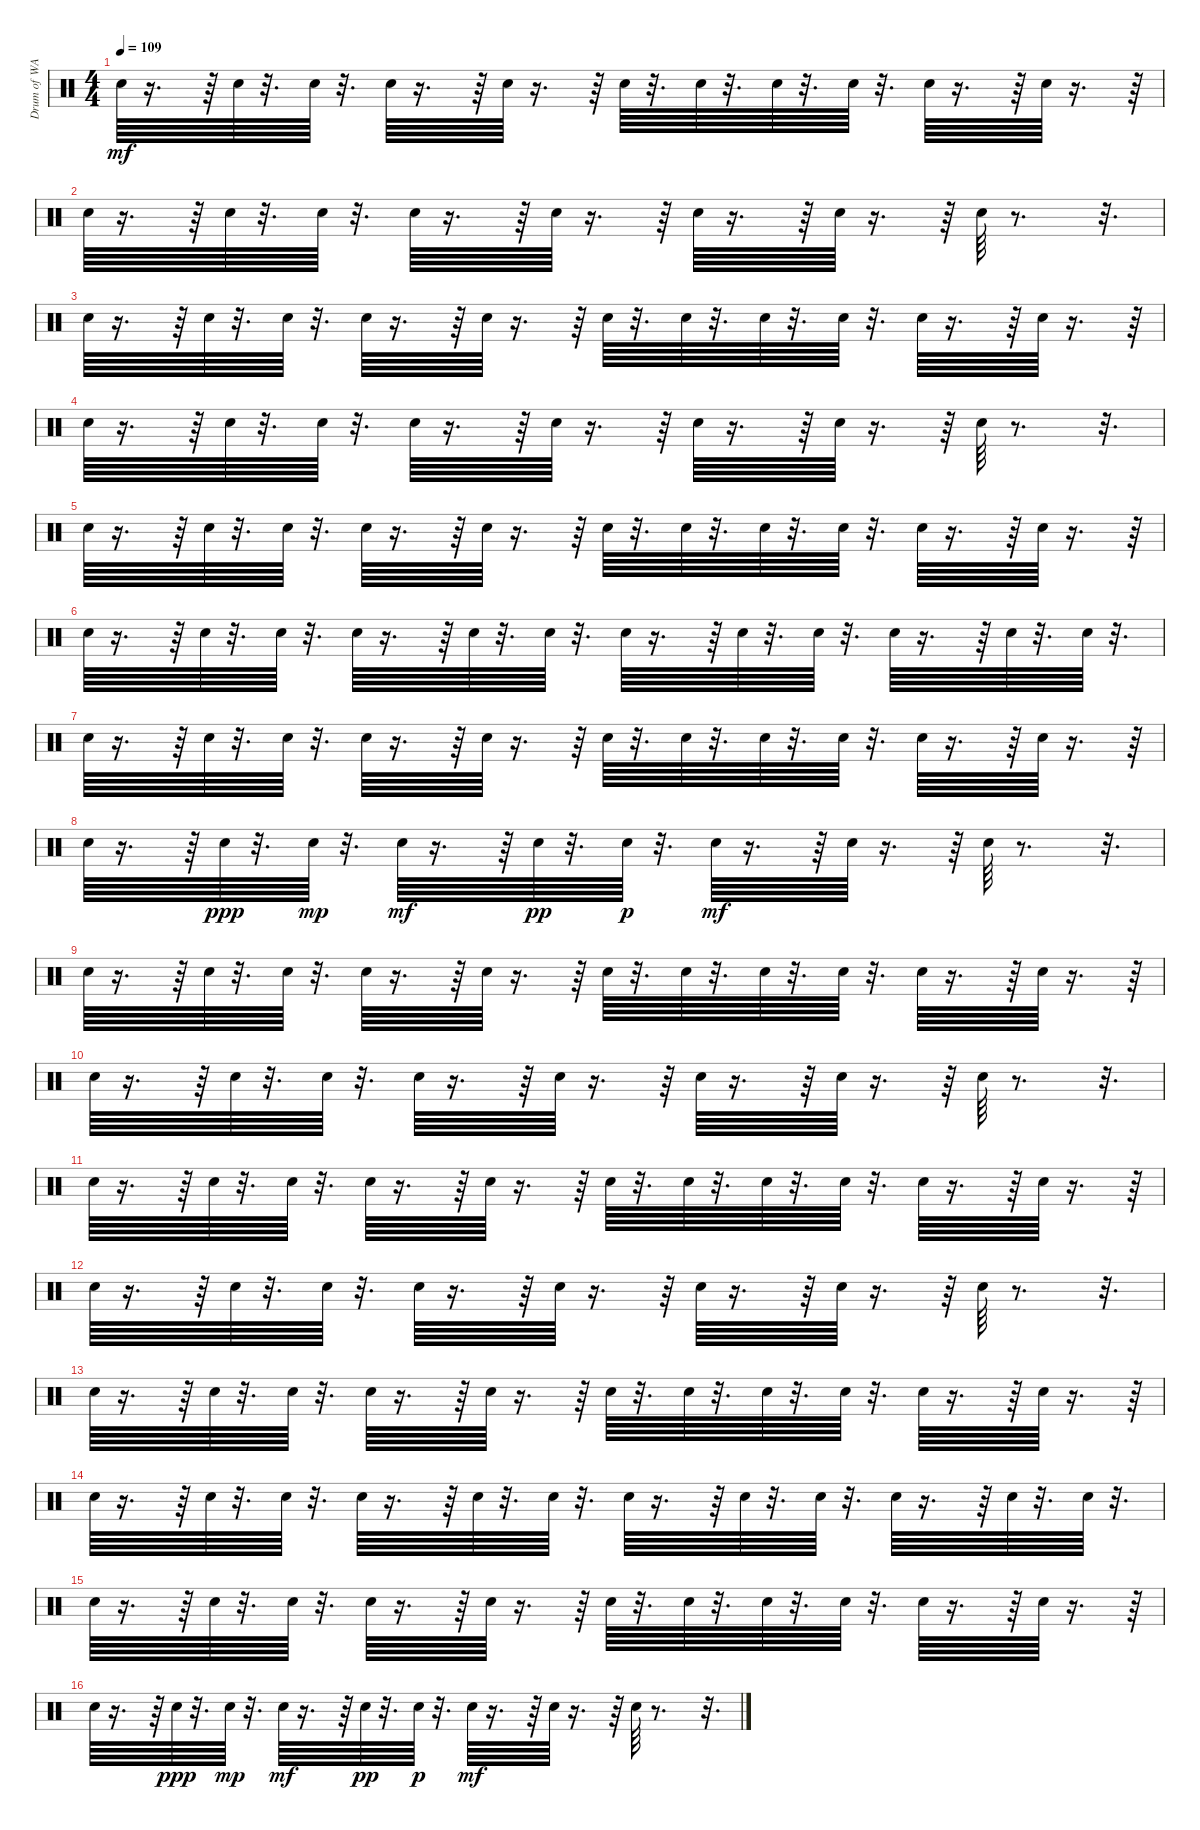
\track ("Drum of WAR" "Drum of WA") {instrument percussion}
\staff {score}
\articulation defaults
\ts (4 4)
\tempo 109
\clef neutral
\ks c "Snare (hit) 2".64{dy mf}
r.16{d} r.64 "Snare (hit) 2".64 r.32{d} "Snare (hit) 2".64 r.32{d} "Snare (hit) 2".64 r.16{d} r.64 "Snare (hit) 2".64 r.16{d} r.64 "Snare (hit) 2".64 r.32{d} "Snare (hit) 2".64 r.32{d} "Snare (hit) 2".64 r.32{d} "Snare (hit) 2".64 r.32{d} "Snare (hit) 2".64 r.16{d} r.64 "Snare (hit) 2".64 r.16{d} r.64 |
"Snare (hit) 2".64 r.16{d} r.64 "Snare (hit) 2".64 r.32{d} "Snare (hit) 2".64 r.32{d} "Snare (hit) 2".64 r.16{d} r.64 "Snare (hit) 2".64 r.16{d} r.64 "Snare (hit) 2".64 r.16{d} r.64 "Snare (hit) 2".64 r.16{d} r.64 "Snare (hit) 2".64 r.8{d} r.32{d} |
"Snare (hit) 2".64 r.16{d} r.64 "Snare (hit) 2".64 r.32{d} "Snare (hit) 2".64 r.32{d} "Snare (hit) 2".64 r.16{d} r.64 "Snare (hit) 2".64 r.16{d} r.64 "Snare (hit) 2".64 r.32{d} "Snare (hit) 2".64 r.32{d} "Snare (hit) 2".64 r.32{d} "Snare (hit) 2".64 r.32{d} "Snare (hit) 2".64 r.16{d} r.64 "Snare (hit) 2".64 r.16{d} r.64 |
"Snare (hit) 2".64 r.16{d} r.64 "Snare (hit) 2".64 r.32{d} "Snare (hit) 2".64 r.32{d} "Snare (hit) 2".64 r.16{d} r.64 "Snare (hit) 2".64 r.16{d} r.64 "Snare (hit) 2".64 r.16{d} r.64 "Snare (hit) 2".64 r.16{d} r.64 "Snare (hit) 2".64 r.8{d} r.32{d} |
"Snare (hit) 2".64 r.16{d} r.64 "Snare (hit) 2".64 r.32{d} "Snare (hit) 2".64 r.32{d} "Snare (hit) 2".64 r.16{d} r.64 "Snare (hit) 2".64 r.16{d} r.64 "Snare (hit) 2".64 r.32{d} "Snare (hit) 2".64 r.32{d} "Snare (hit) 2".64 r.32{d} "Snare (hit) 2".64 r.32{d} "Snare (hit) 2".64 r.16{d} r.64 "Snare (hit) 2".64 r.16{d} r.64 |
"Snare (hit) 2".64 r.16{d} r.64 "Snare (hit) 2".64 r.32{d} "Snare (hit) 2".64 r.32{d} "Snare (hit) 2".64 r.16{d} r.64 "Snare (hit) 2".64 r.32{d} "Snare (hit) 2".64 r.32{d} "Snare (hit) 2".64 r.16{d} r.64 "Snare (hit) 2".64 r.32{d} "Snare (hit) 2".64 r.32{d} "Snare (hit) 2".64 r.16{d} r.64 "Snare (hit) 2".64 r.32{d} "Snare (hit) 2".64 r.32{d} |
"Snare (hit) 2".64 r.16{d} r.64 "Snare (hit) 2".64 r.32{d} "Snare (hit) 2".64 r.32{d} "Snare (hit) 2".64 r.16{d} r.64 "Snare (hit) 2".64 r.16{d} r.64 "Snare (hit) 2".64 r.32{d} "Snare (hit) 2".64 r.32{d} "Snare (hit) 2".64 r.32{d} "Snare (hit) 2".64 r.32{d} "Snare (hit) 2".64 r.16{d} r.64 "Snare (hit) 2".64 r.16{d} r.64 |
"Snare (hit) 2".64 r.16{d} r.64 "Snare (hit) 2".64{dy ppp} r.32{d} "Snare (hit) 2".64{dy mp} r.32{d} "Snare (hit) 2".64{dy mf} r.16{d} r.64 "Snare (hit) 2".64{dy pp} r.32{d} "Snare (hit) 2".64{dy p} r.32{d} "Snare (hit) 2".64{dy mf} r.16{d} r.64 "Snare (hit) 2".64 r.16{d} r.64 "Snare (hit) 2".64 r.8{d} r.32{d} |
"Snare (hit) 2".64 r.16{d} r.64 "Snare (hit) 2".64 r.32{d} "Snare (hit) 2".64 r.32{d} "Snare (hit) 2".64 r.16{d} r.64 "Snare (hit) 2".64 r.16{d} r.64 "Snare (hit) 2".64 r.32{d} "Snare (hit) 2".64 r.32{d} "Snare (hit) 2".64 r.32{d} "Snare (hit) 2".64 r.32{d} "Snare (hit) 2".64 r.16{d} r.64 "Snare (hit) 2".64 r.16{d} r.64 |
"Snare (hit) 2".64 r.16{d} r.64 "Snare (hit) 2".64 r.32{d} "Snare (hit) 2".64 r.32{d} "Snare (hit) 2".64 r.16{d} r.64 "Snare (hit) 2".64 r.16{d} r.64 "Snare (hit) 2".64 r.16{d} r.64 "Snare (hit) 2".64 r.16{d} r.64 "Snare (hit) 2".64 r.8{d} r.32{d} |
"Snare (hit) 2".64 r.16{d} r.64 "Snare (hit) 2".64 r.32{d} "Snare (hit) 2".64 r.32{d} "Snare (hit) 2".64 r.16{d} r.64 "Snare (hit) 2".64 r.16{d} r.64 "Snare (hit) 2".64 r.32{d} "Snare (hit) 2".64 r.32{d} "Snare (hit) 2".64 r.32{d} "Snare (hit) 2".64 r.32{d} "Snare (hit) 2".64 r.16{d} r.64 "Snare (hit) 2".64 r.16{d} r.64 |
"Snare (hit) 2".64 r.16{d} r.64 "Snare (hit) 2".64 r.32{d} "Snare (hit) 2".64 r.32{d} "Snare (hit) 2".64 r.16{d} r.64 "Snare (hit) 2".64 r.16{d} r.64 "Snare (hit) 2".64 r.16{d} r.64 "Snare (hit) 2".64 r.16{d} r.64 "Snare (hit) 2".64 r.8{d} r.32{d} |
"Snare (hit) 2".64 r.16{d} r.64 "Snare (hit) 2".64 r.32{d} "Snare (hit) 2".64 r.32{d} "Snare (hit) 2".64 r.16{d} r.64 "Snare (hit) 2".64 r.16{d} r.64 "Snare (hit) 2".64 r.32{d} "Snare (hit) 2".64 r.32{d} "Snare (hit) 2".64 r.32{d} "Snare (hit) 2".64 r.32{d} "Snare (hit) 2".64 r.16{d} r.64 "Snare (hit) 2".64 r.16{d} r.64 |
"Snare (hit) 2".64 r.16{d} r.64 "Snare (hit) 2".64 r.32{d} "Snare (hit) 2".64 r.32{d} "Snare (hit) 2".64 r.16{d} r.64 "Snare (hit) 2".64 r.32{d} "Snare (hit) 2".64 r.32{d} "Snare (hit) 2".64 r.16{d} r.64 "Snare (hit) 2".64 r.32{d} "Snare (hit) 2".64 r.32{d} "Snare (hit) 2".64 r.16{d} r.64 "Snare (hit) 2".64 r.32{d} "Snare (hit) 2".64 r.32{d} |
"Snare (hit) 2".64 r.16{d} r.64 "Snare (hit) 2".64 r.32{d} "Snare (hit) 2".64 r.32{d} "Snare (hit) 2".64 r.16{d} r.64 "Snare (hit) 2".64 r.16{d} r.64 "Snare (hit) 2".64 r.32{d} "Snare (hit) 2".64 r.32{d} "Snare (hit) 2".64 r.32{d} "Snare (hit) 2".64 r.32{d} "Snare (hit) 2".64 r.16{d} r.64 "Snare (hit) 2".64 r.16{d} r.64 |
"Snare (hit) 2".64 r.16{d} r.64 "Snare (hit) 2".64{dy ppp} r.32{d} "Snare (hit) 2".64{dy mp} r.32{d} "Snare (hit) 2".64{dy mf} r.16{d} r.64 "Snare (hit) 2".64{dy pp} r.32{d} "Snare (hit) 2".64{dy p} r.32{d} "Snare (hit) 2".64{dy mf} r.16{d} r.64 "Snare (hit) 2".64 r.16{d} r.64 "Snare (hit) 2".64 r.8{d} r.32{d}
